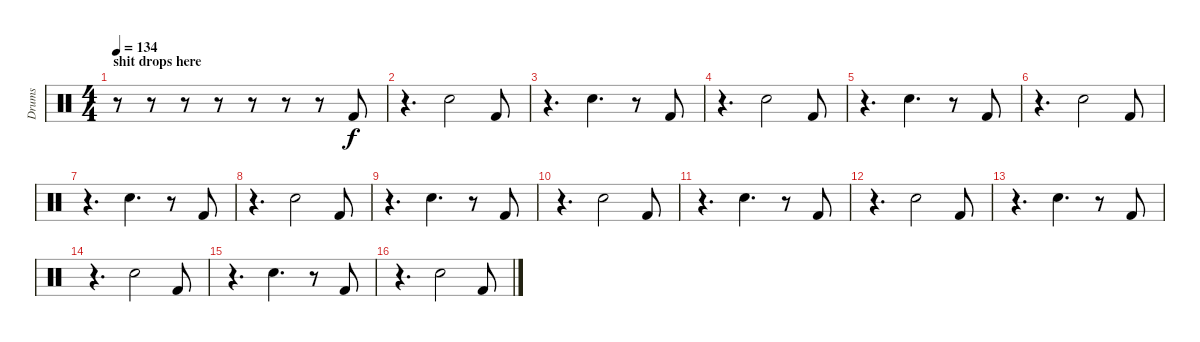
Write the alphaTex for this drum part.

\track ("Drums" "Drums") {instrument percussion}
\staff {score}
\articulation defaults
\ts (4 4)
\section ("" "shit drops here")
\tempo 134
\clef neutral
\ks c
r.8{dy f} r.8 r.8 r.8 r.8 r.8 r.8 "Kick (hit) 2".8 |
r.4{d} "Electric Snare (hit)".2 "Kick (hit) 2".8 |
r.4{d} "Electric Snare (hit)".4{d} r.8 "Kick (hit) 2".8 |
r.4{d} "Electric Snare (hit)".2 "Kick (hit) 2".8 |
r.4{d} "Electric Snare (hit)".4{d} r.8 "Kick (hit) 2".8 |
r.4{d} "Electric Snare (hit)".2 "Kick (hit) 2".8 |
r.4{d} "Electric Snare (hit)".4{d} r.8 "Kick (hit) 2".8 |
r.4{d} "Electric Snare (hit)".2 "Kick (hit) 2".8 |
r.4{d} "Electric Snare (hit)".4{d} r.8 "Kick (hit) 2".8 |
r.4{d} "Electric Snare (hit)".2 "Kick (hit) 2".8 |
r.4{d} "Electric Snare (hit)".4{d} r.8 "Kick (hit) 2".8 |
r.4{d} "Electric Snare (hit)".2 "Kick (hit) 2".8 |
r.4{d} "Electric Snare (hit)".4{d} r.8 "Kick (hit) 2".8 |
r.4{d} "Electric Snare (hit)".2 "Kick (hit) 2".8 |
r.4{d} "Electric Snare (hit)".4{d} r.8 "Kick (hit) 2".8 |
r.4{d} "Electric Snare (hit)".2 "Kick (hit) 2".8
